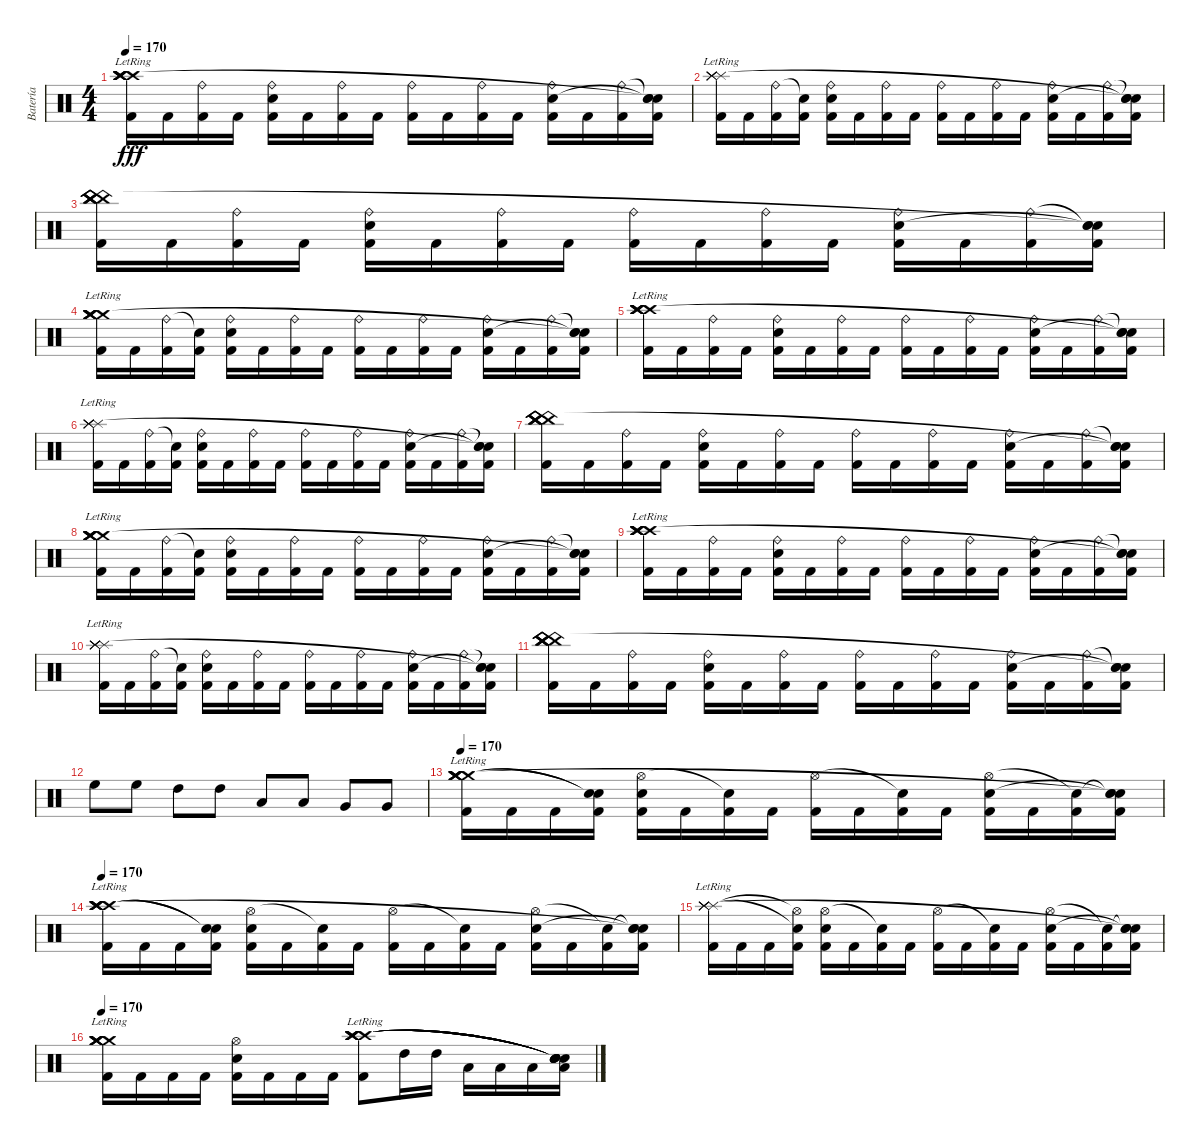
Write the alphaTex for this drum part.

\track ("Batería" "Batería") {instrument percussion}
\staff {score}
\articulation defaults
\ts (4 4)
\tempo 170
\clef neutral
\ks c
("Kick (hit) 2" "Crash high (hit)"{lr} "Crash high (hit)"{lr} "Crash high (hit)"{lr} "Crash high (hit)"{lr} "Crash high (hit)"{lr}).16{dy fff} "Kick (hit) 2".16 ("Kick (hit) 2" "Ride (bell)").16 "Kick (hit) 2".16 ("Kick (hit) 2" "Ride (bell)" "Electric Snare (hit)").16 "Kick (hit) 2".16 ("Kick (hit) 2" "Ride (bell)").16 "Kick (hit) 2".16 ("Kick (hit) 2" "Ride (bell)").16 "Kick (hit) 2".16 ("Kick (hit) 2" "Ride (bell)").16 "Kick (hit) 2".16 ("Kick (hit) 2" "Ride (bell)" "Electric Snare (hit)").16 "Kick (hit) 2".16 ("Kick (hit) 2" "Ride (bell)").16 ("Kick (hit) 2" "Snare (hit)"{t} "Snare (hit)"{t} "Snare (hit)"{t}).16 |
("Kick (hit) 2" "Splash (hit)"{lr} "Splash (hit)"{lr} "Splash (hit)"{lr} "Splash (hit)"{lr} "Splash (hit)"{lr}).16 "Kick (hit) 2".16 ("Kick (hit) 2" "Ride (bell)").16 ("Kick (hit) 2" "Snare (hit)"{t}).16 ("Kick (hit) 2" "Ride (bell)" "Electric Snare (hit)").16 "Kick (hit) 2".16 ("Kick (hit) 2" "Ride (bell)").16 "Kick (hit) 2".16 ("Kick (hit) 2" "Ride (bell)").16 "Kick (hit) 2".16 ("Kick (hit) 2" "Ride (bell)").16 "Kick (hit) 2".16 ("Kick (hit) 2" "Ride (bell)" "Electric Snare (hit)").16 "Kick (hit) 2".16 ("Kick (hit) 2" "Ride (bell)").16 ("Kick (hit) 2" "Snare (hit)"{t} "Snare (hit)"{t} "Snare (hit)"{t}).16 |
("Kick (hit) 2" "China (hit)" "China (hit)" "China (hit)" "China (hit)" "China (hit)").16 "Kick (hit) 2".16 ("Kick (hit) 2" "Ride (bell)").16 "Kick (hit) 2".16 ("Kick (hit) 2" "Ride (bell)" "Electric Snare (hit)").16 "Kick (hit) 2".16 ("Kick (hit) 2" "Ride (bell)").16 "Kick (hit) 2".16 ("Kick (hit) 2" "Ride (bell)").16 "Kick (hit) 2".16 ("Kick (hit) 2" "Ride (bell)").16 "Kick (hit) 2".16 ("Kick (hit) 2" "Ride (bell)" "Electric Snare (hit)").16 "Kick (hit) 2".16 ("Kick (hit) 2" "Ride (bell)").16 ("Kick (hit) 2" "Snare (hit)"{t} "Snare (hit)"{t} "Snare (hit)"{t}).16 |
("Kick (hit) 2" "Crash medium (hit)"{lr} "Crash medium (hit)"{lr} "Crash medium (hit)"{lr} "Crash medium (hit)"{lr} "Crash medium (hit)"{lr}).16 "Kick (hit) 2".16 ("Kick (hit) 2" "Ride (bell)").16 ("Kick (hit) 2" "Snare (hit)"{t}).16 ("Kick (hit) 2" "Ride (bell)" "Electric Snare (hit)").16 "Kick (hit) 2".16 ("Kick (hit) 2" "Ride (bell)").16 "Kick (hit) 2".16 ("Kick (hit) 2" "Ride (bell)").16 "Kick (hit) 2".16 ("Kick (hit) 2" "Ride (bell)").16 "Kick (hit) 2".16 ("Kick (hit) 2" "Ride (bell)" "Electric Snare (hit)").16 "Kick (hit) 2".16 ("Kick (hit) 2" "Ride (bell)").16 ("Kick (hit) 2" "Snare (hit)"{t} "Snare (hit)"{t} "Snare (hit)"{t}).16 |
("Kick (hit) 2" "Crash high (hit)"{lr} "Crash high (hit)"{lr} "Crash high (hit)"{lr} "Crash high (hit)"{lr} "Crash high (hit)"{lr}).16 "Kick (hit) 2".16 ("Kick (hit) 2" "Ride (bell)").16 "Kick (hit) 2".16 ("Kick (hit) 2" "Ride (bell)" "Electric Snare (hit)").16 "Kick (hit) 2".16 ("Kick (hit) 2" "Ride (bell)").16 "Kick (hit) 2".16 ("Kick (hit) 2" "Ride (bell)").16 "Kick (hit) 2".16 ("Kick (hit) 2" "Ride (bell)").16 "Kick (hit) 2".16 ("Kick (hit) 2" "Ride (bell)" "Electric Snare (hit)").16 "Kick (hit) 2".16 ("Kick (hit) 2" "Ride (bell)").16 ("Kick (hit) 2" "Snare (hit)"{t} "Snare (hit)"{t} "Snare (hit)"{t}).16 |
("Kick (hit) 2" "Splash (hit)"{lr} "Splash (hit)"{lr} "Splash (hit)"{lr} "Splash (hit)"{lr} "Splash (hit)"{lr}).16 "Kick (hit) 2".16 ("Kick (hit) 2" "Ride (bell)").16 ("Kick (hit) 2" "Snare (hit)"{t}).16 ("Kick (hit) 2" "Ride (bell)" "Electric Snare (hit)").16 "Kick (hit) 2".16 ("Kick (hit) 2" "Ride (bell)").16 "Kick (hit) 2".16 ("Kick (hit) 2" "Ride (bell)").16 "Kick (hit) 2".16 ("Kick (hit) 2" "Ride (bell)").16 "Kick (hit) 2".16 ("Kick (hit) 2" "Ride (bell)" "Electric Snare (hit)").16 "Kick (hit) 2".16 ("Kick (hit) 2" "Ride (bell)").16 ("Kick (hit) 2" "Snare (hit)"{t} "Snare (hit)"{t} "Snare (hit)"{t}).16 |
("Kick (hit) 2" "China (hit)" "China (hit)" "China (hit)" "China (hit)" "China (hit)").16 "Kick (hit) 2".16 ("Kick (hit) 2" "Ride (bell)").16 "Kick (hit) 2".16 ("Kick (hit) 2" "Ride (bell)" "Electric Snare (hit)").16 "Kick (hit) 2".16 ("Kick (hit) 2" "Ride (bell)").16 "Kick (hit) 2".16 ("Kick (hit) 2" "Ride (bell)").16 "Kick (hit) 2".16 ("Kick (hit) 2" "Ride (bell)").16 "Kick (hit) 2".16 ("Kick (hit) 2" "Ride (bell)" "Electric Snare (hit)").16 "Kick (hit) 2".16 ("Kick (hit) 2" "Ride (bell)").16 ("Kick (hit) 2" "Snare (hit)"{t} "Snare (hit)"{t} "Snare (hit)"{t}).16 |
("Kick (hit) 2" "Crash medium (hit)"{lr} "Crash medium (hit)"{lr} "Crash medium (hit)"{lr} "Crash medium (hit)"{lr} "Crash medium (hit)"{lr}).16 "Kick (hit) 2".16 ("Kick (hit) 2" "Ride (bell)").16 ("Kick (hit) 2" "Snare (hit)"{t}).16 ("Kick (hit) 2" "Ride (bell)" "Electric Snare (hit)").16 "Kick (hit) 2".16 ("Kick (hit) 2" "Ride (bell)").16 "Kick (hit) 2".16 ("Kick (hit) 2" "Ride (bell)").16 "Kick (hit) 2".16 ("Kick (hit) 2" "Ride (bell)").16 "Kick (hit) 2".16 ("Kick (hit) 2" "Ride (bell)" "Electric Snare (hit)").16 "Kick (hit) 2".16 ("Kick (hit) 2" "Ride (bell)").16 ("Kick (hit) 2" "Snare (hit)"{t} "Snare (hit)"{t} "Snare (hit)"{t}).16 |
("Kick (hit) 2" "Crash high (hit)"{lr} "Crash high (hit)"{lr} "Crash high (hit)"{lr} "Crash high (hit)"{lr} "Crash high (hit)"{lr}).16 "Kick (hit) 2".16 ("Kick (hit) 2" "Ride (bell)").16 "Kick (hit) 2".16 ("Kick (hit) 2" "Ride (bell)" "Electric Snare (hit)").16 "Kick (hit) 2".16 ("Kick (hit) 2" "Ride (bell)").16 "Kick (hit) 2".16 ("Kick (hit) 2" "Ride (bell)").16 "Kick (hit) 2".16 ("Kick (hit) 2" "Ride (bell)").16 "Kick (hit) 2".16 ("Kick (hit) 2" "Ride (bell)" "Electric Snare (hit)").16 "Kick (hit) 2".16 ("Kick (hit) 2" "Ride (bell)").16 ("Kick (hit) 2" "Snare (hit)"{t} "Snare (hit)"{t} "Snare (hit)"{t}).16 |
("Kick (hit) 2" "Splash (hit)"{lr} "Splash (hit)"{lr} "Splash (hit)"{lr} "Splash (hit)"{lr} "Splash (hit)"{lr}).16 "Kick (hit) 2".16 ("Kick (hit) 2" "Ride (bell)").16 ("Kick (hit) 2" "Snare (hit)"{t}).16 ("Kick (hit) 2" "Ride (bell)" "Electric Snare (hit)").16 "Kick (hit) 2".16 ("Kick (hit) 2" "Ride (bell)").16 "Kick (hit) 2".16 ("Kick (hit) 2" "Ride (bell)").16 "Kick (hit) 2".16 ("Kick (hit) 2" "Ride (bell)").16 "Kick (hit) 2".16 ("Kick (hit) 2" "Ride (bell)" "Electric Snare (hit)").16 "Kick (hit) 2".16 ("Kick (hit) 2" "Ride (bell)").16 ("Kick (hit) 2" "Snare (hit)"{t} "Snare (hit)"{t} "Snare (hit)"{t}).16 |
("Kick (hit) 2" "China (hit)" "China (hit)" "China (hit)" "China (hit)" "China (hit)").16 "Kick (hit) 2".16 ("Kick (hit) 2" "Ride (bell)").16 "Kick (hit) 2".16 ("Kick (hit) 2" "Ride (bell)" "Electric Snare (hit)").16 "Kick (hit) 2".16 ("Kick (hit) 2" "Ride (bell)").16 "Kick (hit) 2".16 ("Kick (hit) 2" "Ride (bell)").16 "Kick (hit) 2".16 ("Kick (hit) 2" "Ride (bell)").16 "Kick (hit) 2".16 ("Kick (hit) 2" "Ride (bell)" "Electric Snare (hit)").16 "Kick (hit) 2".16 ("Kick (hit) 2" "Ride (bell)").16 ("Kick (hit) 2" "Snare (hit)"{t} "Snare (hit)"{t} "Snare (hit)"{t}).16 |
"High Floor Tom (hit)".8 "High Floor Tom (hit)".8 "High Tom (hit)".8 "High Tom (hit)".8 "Low Tom (hit)".8 "Low Tom (hit)".8 "Very Low Tom (hit)".8 "Very Low Tom (hit)".8 |
\tempo 170
("Kick (hit) 2" "Crash medium (hit)"{lr} "Crash medium (hit)"{lr} "Crash medium (hit)"{lr} "Crash medium (hit)"{lr} "Crash medium (hit)"{lr}).16 "Kick (hit) 2".16 "Kick (hit) 2".16 ("Kick (hit) 2" "Snare (hit)"{t} "Snare (hit)"{t}).16 ("Kick (hit) 2" "Hi-Hat (open)" "Electric Snare (hit)").16 "Kick (hit) 2".16 ("Kick (hit) 2" "Snare (hit)"{t}).16 "Kick (hit) 2".16 ("Kick (hit) 2" "Hi-Hat (open)").16 "Kick (hit) 2".16 ("Kick (hit) 2" "Snare (hit)"{t}).16 "Kick (hit) 2".16 ("Kick (hit) 2" "Hi-Hat (open)" "Electric Snare (hit)").16 "Kick (hit) 2".16 ("Kick (hit) 2" "Snare (hit)"{t}).16 ("Kick (hit) 2" "Snare (hit)"{t} "Snare (hit)"{t} "Snare (hit)"{t}).16 |
\tempo 170
("Kick (hit) 2" "Crash high (hit)"{lr} "Crash high (hit)"{lr} "Crash high (hit)"{lr} "Crash high (hit)"{lr} "Crash high (hit)"{lr}).16 "Kick (hit) 2".16 "Kick (hit) 2".16 ("Kick (hit) 2" "Snare (hit)"{t} "Snare (hit)"{t}).16 ("Kick (hit) 2" "Hi-Hat (open)" "Electric Snare (hit)").16 "Kick (hit) 2".16 ("Kick (hit) 2" "Snare (hit)"{t}).16 "Kick (hit) 2".16 ("Kick (hit) 2" "Hi-Hat (open)").16 "Kick (hit) 2".16 ("Kick (hit) 2" "Snare (hit)"{t}).16 "Kick (hit) 2".16 ("Kick (hit) 2" "Hi-Hat (open)" "Electric Snare (hit)").16 "Kick (hit) 2".16 ("Kick (hit) 2" "Snare (hit)"{t}).16 ("Kick (hit) 2" "Snare (hit)"{t} "Snare (hit)"{t} "Snare (hit)"{t}).16 |
("Kick (hit) 2"{lr} "Splash (hit)"{lr} "Splash (hit)"{lr} "Splash (hit)"{lr} "Splash (hit)"{lr} "Splash (hit)"{lr}).16 "Kick (hit) 2".16 "Kick (hit) 2".16 ("Kick (hit) 2" "Hi-Hat (open)"{t} "Snare (hit)"{t}).16 ("Kick (hit) 2" "Hi-Hat (open)" "Electric Snare (hit)").16 "Kick (hit) 2".16 ("Kick (hit) 2" "Snare (hit)"{t}).16 "Kick (hit) 2".16 ("Kick (hit) 2" "Hi-Hat (open)").16 "Kick (hit) 2".16 ("Kick (hit) 2" "Snare (hit)"{t}).16 "Kick (hit) 2".16 ("Kick (hit) 2" "Hi-Hat (open)" "Electric Snare (hit)").16 "Kick (hit) 2".16 ("Kick (hit) 2" "Snare (hit)"{t}).16 ("Kick (hit) 2" "Snare (hit)"{t} "Snare (hit)"{t} "Snare (hit)"{t}).16 |
\tempo 170
("Kick (hit) 2" "Crash medium (hit)"{lr} "Crash medium (hit)"{lr} "Crash medium (hit)"{lr} "Crash medium (hit)"{lr} "Crash medium (hit)"{lr}).16 "Kick (hit) 2".16 "Kick (hit) 2".16 "Kick (hit) 2".16 ("Kick (hit) 2" "Hi-Hat (open)" "Electric Snare (hit)").16 "Kick (hit) 2".16 "Kick (hit) 2".16 "Kick (hit) 2".16 ("Kick (hit) 2"{lr} "Crash high (hit)"{lr} "Crash high (hit)"{lr} "Crash high (hit)"{lr} "Crash high (hit)"{lr} "Crash high (hit)"{lr}).8 "High Tom (hit)".16 "High Tom (hit)".16 "Low Tom (hit)".16 "Low Tom (hit)".16 "Low Floor Tom (hit)".16 ("Low Floor Tom (hit)" "Snare (hit)"{t} "Snare (hit)"{t} "Snare (hit)"{t} "Snare (hit)"{t} "Snare (hit)"{t}).16
